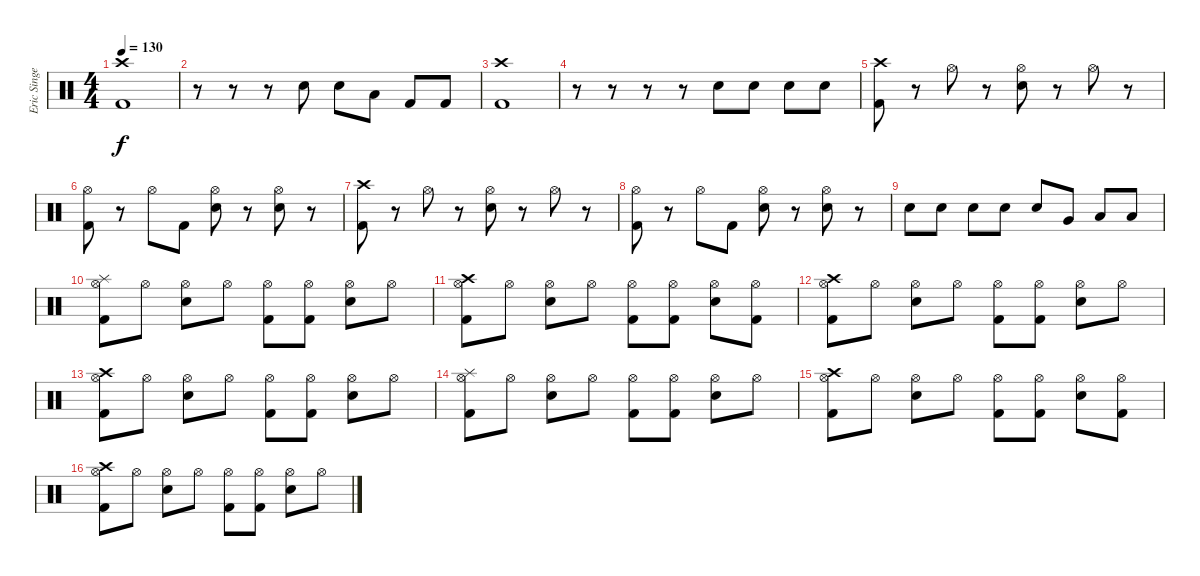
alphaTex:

\track ("Eric Singer" "Eric Singe") {instrument percussion}
\staff {score}
\articulation defaults
\ts (4 4)
\tempo 130
\clef neutral
\ks c
("Kick (hit) 2" "Crash high (hit)").1{dy f} |
r.8 r.8 r.8 "Electric Snare (hit)".8 "Electric Snare (hit)".8 "Low Floor Tom (hit)".8 "Kick (hit) 2".8 "Kick (hit) 2".8 |
("Kick (hit) 2" "Crash high (hit)").1 |
r.8 r.8 r.8 r.8 "Electric Snare (hit)".8 "Electric Snare (hit)".8 "Electric Snare (hit)".8 "Electric Snare (hit)".8 |
("Kick (hit) 2" "Crash high (hit)").8 r.8 "Hi-Hat (open)".8 r.8 ("Electric Snare (hit)" "Hi-Hat (open)").8 r.8 "Hi-Hat (open)".8 r.8 |
("Kick (hit) 2" "Hi-Hat (open)").8 r.8 "Hi-Hat (open)".8 "Kick (hit) 2".8 ("Electric Snare (hit)" "Hi-Hat (open)").8 r.8 ("Electric Snare (hit)" "Hi-Hat (open)").8 r.8 |
("Kick (hit) 2" "Crash high (hit)").8 r.8 "Hi-Hat (open)".8 r.8 ("Electric Snare (hit)" "Hi-Hat (open)").8 r.8 "Hi-Hat (open)".8 r.8 |
("Kick (hit) 2" "Hi-Hat (open)").8 r.8 "Hi-Hat (open)".8 "Kick (hit) 2".8 ("Electric Snare (hit)" "Hi-Hat (open)").8 r.8 ("Electric Snare (hit)" "Hi-Hat (open)").8 r.8 |
"Electric Snare (hit)".8 "Electric Snare (hit)".8 "Electric Snare (hit)".8 "Electric Snare (hit)".8 "Electric Snare (hit)".8 "Very Low Tom (hit)".8 "Low Floor Tom (hit)".8 "Low Floor Tom (hit)".8 |
("Splash (hit)" "Kick (hit) 2" "Hi-Hat (open)").8 "Hi-Hat (open)".8 ("Electric Snare (hit)" "Hi-Hat (open)").8 "Hi-Hat (open)".8 ("Kick (hit) 2" "Hi-Hat (open)").8 ("Kick (hit) 2" "Hi-Hat (open)").8 ("Electric Snare (hit)" "Hi-Hat (open)").8 "Hi-Hat (open)".8 |
("Crash high (hit)" "Kick (hit) 2" "Hi-Hat (open)").8 "Hi-Hat (open)".8 ("Electric Snare (hit)" "Hi-Hat (open)").8 "Hi-Hat (open)".8 ("Kick (hit) 2" "Hi-Hat (open)").8 ("Kick (hit) 2" "Hi-Hat (open)").8 ("Electric Snare (hit)" "Hi-Hat (open)").8 ("Kick (hit) 2" "Hi-Hat (open)").8 |
("Crash high (hit)" "Kick (hit) 2" "Hi-Hat (open)").8 "Hi-Hat (open)".8 ("Electric Snare (hit)" "Hi-Hat (open)").8 "Hi-Hat (open)".8 ("Kick (hit) 2" "Hi-Hat (open)").8 ("Kick (hit) 2" "Hi-Hat (open)").8 ("Electric Snare (hit)" "Hi-Hat (open)").8 "Hi-Hat (open)".8 |
("Crash high (hit)" "Kick (hit) 2" "Hi-Hat (open)").8 "Hi-Hat (open)".8 ("Electric Snare (hit)" "Hi-Hat (open)").8 "Hi-Hat (open)".8 ("Kick (hit) 2" "Hi-Hat (open)").8 ("Kick (hit) 2" "Hi-Hat (open)").8 ("Electric Snare (hit)" "Hi-Hat (open)").8 "Hi-Hat (open)".8 |
("Splash (hit)" "Kick (hit) 2" "Hi-Hat (open)").8 "Hi-Hat (open)".8 ("Electric Snare (hit)" "Hi-Hat (open)").8 "Hi-Hat (open)".8 ("Kick (hit) 2" "Hi-Hat (open)").8 ("Kick (hit) 2" "Hi-Hat (open)").8 ("Electric Snare (hit)" "Hi-Hat (open)").8 "Hi-Hat (open)".8 |
("Crash high (hit)" "Kick (hit) 2" "Hi-Hat (open)").8 "Hi-Hat (open)".8 ("Electric Snare (hit)" "Hi-Hat (open)").8 "Hi-Hat (open)".8 ("Kick (hit) 2" "Hi-Hat (open)").8 ("Kick (hit) 2" "Hi-Hat (open)").8 ("Electric Snare (hit)" "Hi-Hat (open)").8 ("Kick (hit) 2" "Hi-Hat (open)").8 |
("Crash high (hit)" "Kick (hit) 2" "Hi-Hat (open)").8 "Hi-Hat (open)".8 ("Electric Snare (hit)" "Hi-Hat (open)").8 "Hi-Hat (open)".8 ("Kick (hit) 2" "Hi-Hat (open)").8 ("Kick (hit) 2" "Hi-Hat (open)").8 ("Electric Snare (hit)" "Hi-Hat (open)").8 "Hi-Hat (open)".8
